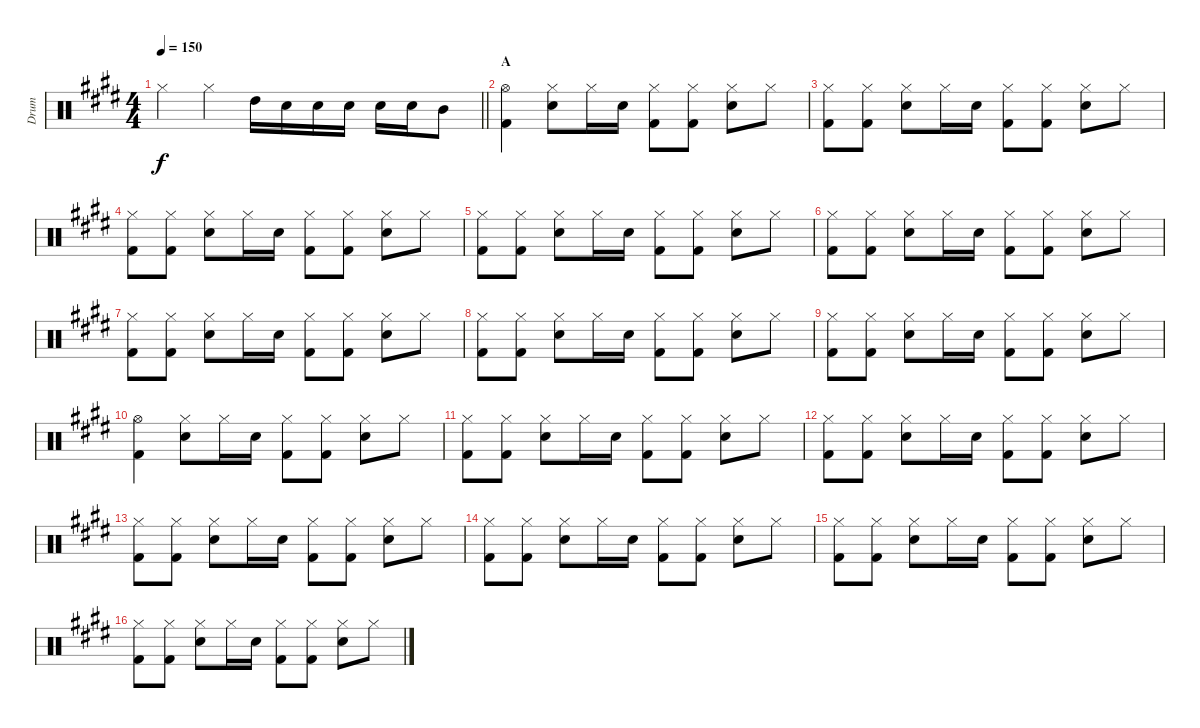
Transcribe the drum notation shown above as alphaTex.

\track ("Drum" "Drum") {instrument percussion}
\staff {score}
\articulation defaults
\ts (4 4)
\tempo 150
\clef neutral
\barLineRight lightlight
\ks c#minor "Hi-Hat (closed)".4{dy f} "Hi-Hat (closed)".4 "High Tom (hit)".16 "Snare (hit) 2".16 "Snare (hit) 2".16 "Snare (hit) 2".16 "Snare (hit) 2".16 "Snare (hit) 2".16 "Mid Tom (hit)".8
|
\section ("" "A")
("Hi-Hat (open)" "Kick (hit) 2").4 ("Hi-Hat (closed)" "Snare (hit) 2").8 "Hi-Hat (closed)".16 "Snare (hit) 2".16 ("Hi-Hat (closed)" "Kick (hit) 2").8 ("Hi-Hat (closed)" "Kick (hit) 2").8 ("Hi-Hat (closed)" "Snare (hit) 2").8 "Hi-Hat (closed)".8 |
("Hi-Hat (closed)" "Kick (hit) 2").8 ("Hi-Hat (closed)" "Kick (hit) 2").8 ("Hi-Hat (closed)" "Snare (hit) 2").8 "Hi-Hat (closed)".16 "Snare (hit) 2".16 ("Hi-Hat (closed)" "Kick (hit) 2").8 ("Hi-Hat (closed)" "Kick (hit) 2").8 ("Hi-Hat (closed)" "Snare (hit) 2").8 "Hi-Hat (closed)".8 |
("Hi-Hat (closed)" "Kick (hit) 2").8 ("Hi-Hat (closed)" "Kick (hit) 2").8 ("Hi-Hat (closed)" "Snare (hit) 2").8 "Hi-Hat (closed)".16 "Snare (hit) 2".16 ("Hi-Hat (closed)" "Kick (hit) 2").8 ("Hi-Hat (closed)" "Kick (hit) 2").8 ("Hi-Hat (closed)" "Snare (hit) 2").8 "Hi-Hat (closed)".8 |
("Hi-Hat (closed)" "Kick (hit) 2").8 ("Hi-Hat (closed)" "Kick (hit) 2").8 ("Hi-Hat (closed)" "Snare (hit) 2").8 "Hi-Hat (closed)".16 "Snare (hit) 2".16 ("Hi-Hat (closed)" "Kick (hit) 2").8 ("Hi-Hat (closed)" "Kick (hit) 2").8 ("Hi-Hat (closed)" "Snare (hit) 2").8 "Hi-Hat (closed)".8 |
("Hi-Hat (closed)" "Kick (hit) 2").8 ("Hi-Hat (closed)" "Kick (hit) 2").8 ("Hi-Hat (closed)" "Snare (hit) 2").8 "Hi-Hat (closed)".16 "Snare (hit) 2".16 ("Hi-Hat (closed)" "Kick (hit) 2").8 ("Hi-Hat (closed)" "Kick (hit) 2").8 ("Hi-Hat (closed)" "Snare (hit) 2").8 "Hi-Hat (closed)".8 |
("Hi-Hat (closed)" "Kick (hit) 2").8 ("Hi-Hat (closed)" "Kick (hit) 2").8 ("Hi-Hat (closed)" "Snare (hit) 2").8 "Hi-Hat (closed)".16 "Snare (hit) 2".16 ("Hi-Hat (closed)" "Kick (hit) 2").8 ("Hi-Hat (closed)" "Kick (hit) 2").8 ("Hi-Hat (closed)" "Snare (hit) 2").8 "Hi-Hat (closed)".8 |
("Hi-Hat (closed)" "Kick (hit) 2").8 ("Hi-Hat (closed)" "Kick (hit) 2").8 ("Hi-Hat (closed)" "Snare (hit) 2").8 "Hi-Hat (closed)".16 "Snare (hit) 2".16 ("Hi-Hat (closed)" "Kick (hit) 2").8 ("Hi-Hat (closed)" "Kick (hit) 2").8 ("Hi-Hat (closed)" "Snare (hit) 2").8 "Hi-Hat (closed)".8 |
("Hi-Hat (closed)" "Kick (hit) 2").8 ("Hi-Hat (closed)" "Kick (hit) 2").8 ("Hi-Hat (closed)" "Snare (hit) 2").8 "Hi-Hat (closed)".16 "Snare (hit) 2".16 ("Hi-Hat (closed)" "Kick (hit) 2").8 ("Hi-Hat (closed)" "Kick (hit) 2").8 ("Hi-Hat (closed)" "Snare (hit) 2").8 "Hi-Hat (closed)".8 |
("Hi-Hat (open)" "Kick (hit) 2").4 ("Hi-Hat (closed)" "Snare (hit) 2").8 "Hi-Hat (closed)".16 "Snare (hit) 2".16 ("Hi-Hat (closed)" "Kick (hit) 2").8 ("Hi-Hat (closed)" "Kick (hit) 2").8 ("Hi-Hat (closed)" "Snare (hit) 2").8 "Hi-Hat (closed)".8 |
("Hi-Hat (closed)" "Kick (hit) 2").8 ("Hi-Hat (closed)" "Kick (hit) 2").8 ("Hi-Hat (closed)" "Snare (hit) 2").8 "Hi-Hat (closed)".16 "Snare (hit) 2".16 ("Hi-Hat (closed)" "Kick (hit) 2").8 ("Hi-Hat (closed)" "Kick (hit) 2").8 ("Hi-Hat (closed)" "Snare (hit) 2").8 "Hi-Hat (closed)".8 |
("Hi-Hat (closed)" "Kick (hit) 2").8 ("Hi-Hat (closed)" "Kick (hit) 2").8 ("Hi-Hat (closed)" "Snare (hit) 2").8 "Hi-Hat (closed)".16 "Snare (hit) 2".16 ("Hi-Hat (closed)" "Kick (hit) 2").8 ("Hi-Hat (closed)" "Kick (hit) 2").8 ("Hi-Hat (closed)" "Snare (hit) 2").8 "Hi-Hat (closed)".8 |
("Hi-Hat (closed)" "Kick (hit) 2").8 ("Hi-Hat (closed)" "Kick (hit) 2").8 ("Hi-Hat (closed)" "Snare (hit) 2").8 "Hi-Hat (closed)".16 "Snare (hit) 2".16 ("Hi-Hat (closed)" "Kick (hit) 2").8 ("Hi-Hat (closed)" "Kick (hit) 2").8 ("Hi-Hat (closed)" "Snare (hit) 2").8 "Hi-Hat (closed)".8 |
("Hi-Hat (closed)" "Kick (hit) 2").8 ("Hi-Hat (closed)" "Kick (hit) 2").8 ("Hi-Hat (closed)" "Snare (hit) 2").8 "Hi-Hat (closed)".16 "Snare (hit) 2".16 ("Hi-Hat (closed)" "Kick (hit) 2").8 ("Hi-Hat (closed)" "Kick (hit) 2").8 ("Hi-Hat (closed)" "Snare (hit) 2").8 "Hi-Hat (closed)".8 |
("Hi-Hat (closed)" "Kick (hit) 2").8 ("Hi-Hat (closed)" "Kick (hit) 2").8 ("Hi-Hat (closed)" "Snare (hit) 2").8 "Hi-Hat (closed)".16 "Snare (hit) 2".16 ("Hi-Hat (closed)" "Kick (hit) 2").8 ("Hi-Hat (closed)" "Kick (hit) 2").8 ("Hi-Hat (closed)" "Snare (hit) 2").8 "Hi-Hat (closed)".8 |
("Hi-Hat (closed)" "Kick (hit) 2").8 ("Hi-Hat (closed)" "Kick (hit) 2").8 ("Hi-Hat (closed)" "Snare (hit) 2").8 "Hi-Hat (closed)".16 "Snare (hit) 2".16 ("Hi-Hat (closed)" "Kick (hit) 2").8 ("Hi-Hat (closed)" "Kick (hit) 2").8 ("Hi-Hat (closed)" "Snare (hit) 2").8 "Hi-Hat (closed)".8
